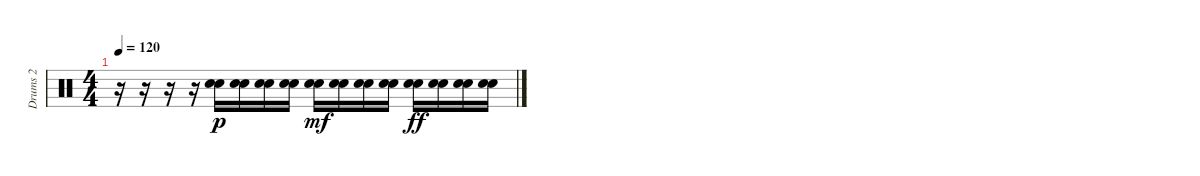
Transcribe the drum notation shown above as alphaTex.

\track ("Drums 2" "Drums 2") {instrument percussion}
\staff {score}
\articulation defaults
\ts (4 4)
\tempo 120
\clef neutral
\ks c
r.16{dy ff} r.16 r.16 r.16 ("Snare (hit) 2" "Snare (hit)").16{dy p} ("Snare (hit) 2" "Snare (hit)").16 ("Snare (hit) 2" "Snare (hit)").16 ("Snare (hit) 2" "Snare (hit)").16 ("Snare (hit) 2" "Snare (hit)").16{dy mf} ("Snare (hit) 2" "Snare (hit)").16 ("Snare (hit) 2" "Snare (hit)").16 ("Snare (hit) 2" "Snare (hit)").16 ("Snare (hit) 2" "Snare (hit)").16{dy ff} ("Snare (hit) 2" "Snare (hit)").16 ("Snare (hit) 2" "Snare (hit)").16 ("Snare (hit) 2" "Snare (hit)").16
